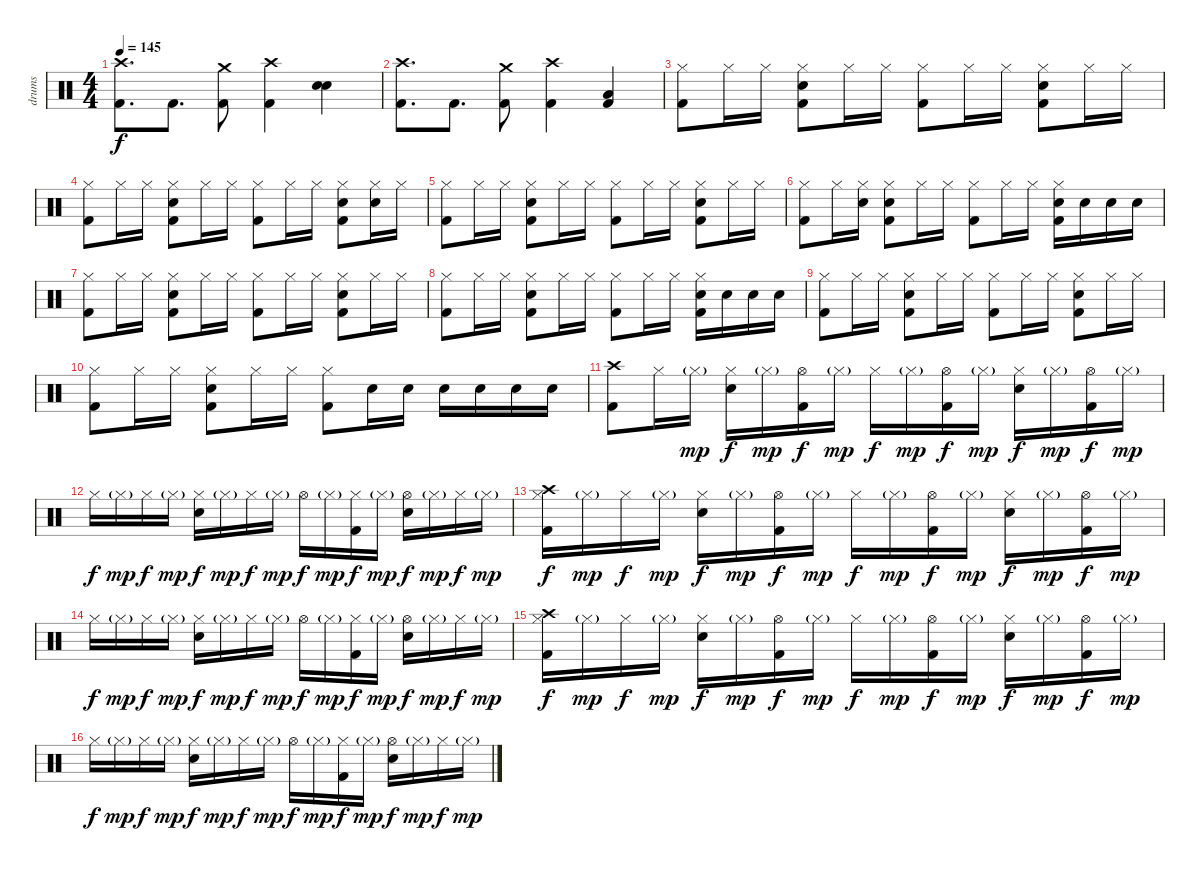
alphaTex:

\track ("drums" "drums") {instrument percussion}
\staff {score}
\articulation defaults
\ts (4 4)
\tempo 145
\clef neutral
\ks c
("Crash high (hit)" "Kick (hit) 2").8{d dy f} "Kick (hit) 2".8{d} ("Crash medium (hit)" "Kick (hit) 2").8 ("Crash high (hit)" "Kick (hit) 2").4 ("Snare (hit) 2" "Electric Snare (hit)").4 |
("Crash high (hit)" "Kick (hit) 2").8{d} "Kick (hit) 2".8{d} ("Crash medium (hit)" "Kick (hit) 2").8 ("Crash high (hit)" "Kick (hit) 2").4 ("Low Tom (hit)" "Kick (hit) 2").4 |
("Hi-Hat (closed)" "Kick (hit) 2").8 "Hi-Hat (closed)".16 "Hi-Hat (closed)".16 ("Hi-Hat (closed)" "Snare (hit) 2" "Kick (hit) 2").8 "Hi-Hat (closed)".16 "Hi-Hat (closed)".16 ("Hi-Hat (closed)" "Kick (hit) 2").8 "Hi-Hat (closed)".16 "Hi-Hat (closed)".16 ("Hi-Hat (closed)" "Snare (hit) 2" "Kick (hit) 2").8 "Hi-Hat (closed)".16 "Hi-Hat (closed)".16 |
("Hi-Hat (closed)" "Kick (hit) 2").8 "Hi-Hat (closed)".16 "Hi-Hat (closed)".16 ("Hi-Hat (closed)" "Snare (hit) 2" "Kick (hit) 2").8 "Hi-Hat (closed)".16 "Hi-Hat (closed)".16 ("Hi-Hat (closed)" "Kick (hit) 2").8 "Hi-Hat (closed)".16 "Hi-Hat (closed)".16 ("Hi-Hat (closed)" "Snare (hit) 2" "Kick (hit) 2").8 ("Hi-Hat (closed)" "Snare (hit) 2").16 "Hi-Hat (closed)".16 |
("Hi-Hat (closed)" "Kick (hit) 2").8 "Hi-Hat (closed)".16 "Hi-Hat (closed)".16 ("Hi-Hat (closed)" "Snare (hit) 2" "Kick (hit) 2").8 "Hi-Hat (closed)".16 "Hi-Hat (closed)".16 ("Hi-Hat (closed)" "Kick (hit) 2").8 "Hi-Hat (closed)".16 "Hi-Hat (closed)".16 ("Hi-Hat (closed)" "Snare (hit) 2" "Kick (hit) 2").8 "Hi-Hat (closed)".16 "Hi-Hat (closed)".16 |
("Hi-Hat (closed)" "Kick (hit) 2").8 "Hi-Hat (closed)".16 ("Hi-Hat (closed)" "Snare (hit) 2").16 ("Hi-Hat (closed)" "Snare (hit) 2" "Kick (hit) 2").8 "Hi-Hat (closed)".16 "Hi-Hat (closed)".16 ("Hi-Hat (closed)" "Kick (hit) 2").8 "Hi-Hat (closed)".16 "Hi-Hat (closed)".16 ("Hi-Hat (closed)" "Snare (hit) 2" "Kick (hit) 2").16 "Snare (hit) 2".16 "Snare (hit) 2".16 "Snare (hit) 2".16 |
("Hi-Hat (closed)" "Kick (hit) 2").8 "Hi-Hat (closed)".16 "Hi-Hat (closed)".16 ("Hi-Hat (closed)" "Snare (hit) 2" "Kick (hit) 2").8 "Hi-Hat (closed)".16 "Hi-Hat (closed)".16 ("Hi-Hat (closed)" "Kick (hit) 2").8 "Hi-Hat (closed)".16 "Hi-Hat (closed)".16 ("Hi-Hat (closed)" "Snare (hit) 2" "Kick (hit) 2").8 "Hi-Hat (closed)".16 "Hi-Hat (closed)".16 |
("Hi-Hat (closed)" "Kick (hit) 2").8 "Hi-Hat (closed)".16 "Hi-Hat (closed)".16 ("Hi-Hat (closed)" "Snare (hit) 2" "Kick (hit) 2").8 "Hi-Hat (closed)".16 "Hi-Hat (closed)".16 ("Hi-Hat (closed)" "Kick (hit) 2").8 "Hi-Hat (closed)".16 "Hi-Hat (closed)".16 ("Hi-Hat (closed)" "Snare (hit) 2" "Kick (hit) 2").16 "Snare (hit) 2".16 "Snare (hit) 2".16 "Snare (hit) 2".16 |
("Hi-Hat (closed)" "Kick (hit) 2").8 "Hi-Hat (closed)".16 "Hi-Hat (closed)".16 ("Hi-Hat (closed)" "Snare (hit) 2" "Kick (hit) 2").8 "Hi-Hat (closed)".16 "Hi-Hat (closed)".16 ("Hi-Hat (closed)" "Kick (hit) 2").8 "Hi-Hat (closed)".16 "Hi-Hat (closed)".16 ("Hi-Hat (closed)" "Snare (hit) 2" "Kick (hit) 2").8 "Hi-Hat (closed)".16 "Hi-Hat (closed)".16 |
("Hi-Hat (closed)" "Kick (hit) 2").8 "Hi-Hat (closed)".16 "Hi-Hat (closed)".16 ("Hi-Hat (closed)" "Snare (hit) 2" "Kick (hit) 2").8 "Hi-Hat (closed)".16 "Hi-Hat (closed)".16 ("Hi-Hat (closed)" "Kick (hit) 2").8 "Snare (hit) 2".16 "Snare (hit) 2".16 "Snare (hit) 2".16 "Snare (hit) 2".16 "Snare (hit) 2".16 "Snare (hit) 2".16 |
("Crash high (hit)" "Kick (hit) 2").8 "Hi-Hat (closed)".16 "Hi-Hat (closed)"{g}.16{dy mp} ("Hi-Hat (closed)" "Snare (hit) 2").16{dy f} "Hi-Hat (closed)"{g}.16{dy mp} ("Hi-Hat (open)" "Kick (hit) 2").16{dy f} "Hi-Hat (closed)"{g}.16{dy mp} "Hi-Hat (closed)".16{dy f} "Hi-Hat (closed)"{g}.16{dy mp} ("Hi-Hat (open)" "Kick (hit) 2").16{dy f} "Hi-Hat (closed)"{g}.16{dy mp} ("Hi-Hat (closed)" "Snare (hit) 2").16{dy f} "Hi-Hat (closed)"{g}.16{dy mp} ("Hi-Hat (open)" "Kick (hit) 2").16{dy f} "Hi-Hat (closed)"{g}.16{dy mp} |
"Hi-Hat (closed)".16{dy f} "Hi-Hat (closed)"{g}.16{dy mp} "Hi-Hat (closed)".16{dy f} "Hi-Hat (closed)"{g}.16{dy mp} ("Hi-Hat (closed)" "Snare (hit) 2").16{dy f} "Hi-Hat (closed)"{g}.16{dy mp} "Hi-Hat (closed)".16{dy f} "Hi-Hat (closed)"{g}.16{dy mp} "Hi-Hat (open)".16{dy f} "Hi-Hat (closed)"{g}.16{dy mp} ("Hi-Hat (closed)" "Kick (hit) 2").16{dy f} "Hi-Hat (closed)"{g}.16{dy mp} ("Hi-Hat (open)" "Snare (hit) 2").16{dy f} "Hi-Hat (closed)"{g}.16{dy mp} "Hi-Hat (closed)".16{dy f} "Hi-Hat (closed)"{g}.16{dy mp} |
("Hi-Hat (closed)" "Crash high (hit)" "Kick (hit) 2").16{dy f} "Hi-Hat (closed)"{g}.16{dy mp} "Hi-Hat (closed)".16{dy f} "Hi-Hat (closed)"{g}.16{dy mp} ("Hi-Hat (closed)" "Snare (hit) 2").16{dy f} "Hi-Hat (closed)"{g}.16{dy mp} ("Hi-Hat (open)" "Kick (hit) 2").16{dy f} "Hi-Hat (closed)"{g}.16{dy mp} "Hi-Hat (closed)".16{dy f} "Hi-Hat (closed)"{g}.16{dy mp} ("Hi-Hat (open)" "Kick (hit) 2").16{dy f} "Hi-Hat (closed)"{g}.16{dy mp} ("Hi-Hat (closed)" "Snare (hit) 2").16{dy f} "Hi-Hat (closed)"{g}.16{dy mp} ("Hi-Hat (open)" "Kick (hit) 2").16{dy f} "Hi-Hat (closed)"{g}.16{dy mp} |
"Hi-Hat (closed)".16{dy f} "Hi-Hat (closed)"{g}.16{dy mp} "Hi-Hat (closed)".16{dy f} "Hi-Hat (closed)"{g}.16{dy mp} ("Hi-Hat (closed)" "Snare (hit) 2").16{dy f} "Hi-Hat (closed)"{g}.16{dy mp} "Hi-Hat (closed)".16{dy f} "Hi-Hat (closed)"{g}.16{dy mp} "Hi-Hat (open)".16{dy f} "Hi-Hat (closed)"{g}.16{dy mp} ("Hi-Hat (closed)" "Kick (hit) 2").16{dy f} "Hi-Hat (closed)"{g}.16{dy mp} ("Hi-Hat (open)" "Snare (hit) 2").16{dy f} "Hi-Hat (closed)"{g}.16{dy mp} "Hi-Hat (closed)".16{dy f} "Hi-Hat (closed)"{g}.16{dy mp} |
("Hi-Hat (closed)" "Crash high (hit)" "Kick (hit) 2").16{dy f} "Hi-Hat (closed)"{g}.16{dy mp} "Hi-Hat (closed)".16{dy f} "Hi-Hat (closed)"{g}.16{dy mp} ("Hi-Hat (closed)" "Snare (hit) 2").16{dy f} "Hi-Hat (closed)"{g}.16{dy mp} ("Hi-Hat (open)" "Kick (hit) 2").16{dy f} "Hi-Hat (closed)"{g}.16{dy mp} "Hi-Hat (closed)".16{dy f} "Hi-Hat (closed)"{g}.16{dy mp} ("Hi-Hat (open)" "Kick (hit) 2").16{dy f} "Hi-Hat (closed)"{g}.16{dy mp} ("Hi-Hat (closed)" "Snare (hit) 2").16{dy f} "Hi-Hat (closed)"{g}.16{dy mp} ("Hi-Hat (open)" "Kick (hit) 2").16{dy f} "Hi-Hat (closed)"{g}.16{dy mp} |
"Hi-Hat (closed)".16{dy f} "Hi-Hat (closed)"{g}.16{dy mp} "Hi-Hat (closed)".16{dy f} "Hi-Hat (closed)"{g}.16{dy mp} ("Hi-Hat (closed)" "Snare (hit) 2").16{dy f} "Hi-Hat (closed)"{g}.16{dy mp} "Hi-Hat (closed)".16{dy f} "Hi-Hat (closed)"{g}.16{dy mp} "Hi-Hat (open)".16{dy f} "Hi-Hat (closed)"{g}.16{dy mp} ("Hi-Hat (closed)" "Kick (hit) 2").16{dy f} "Hi-Hat (closed)"{g}.16{dy mp} ("Hi-Hat (open)" "Snare (hit) 2").16{dy f} "Hi-Hat (closed)"{g}.16{dy mp} "Hi-Hat (closed)".16{dy f} "Hi-Hat (closed)"{g}.16{dy mp}
